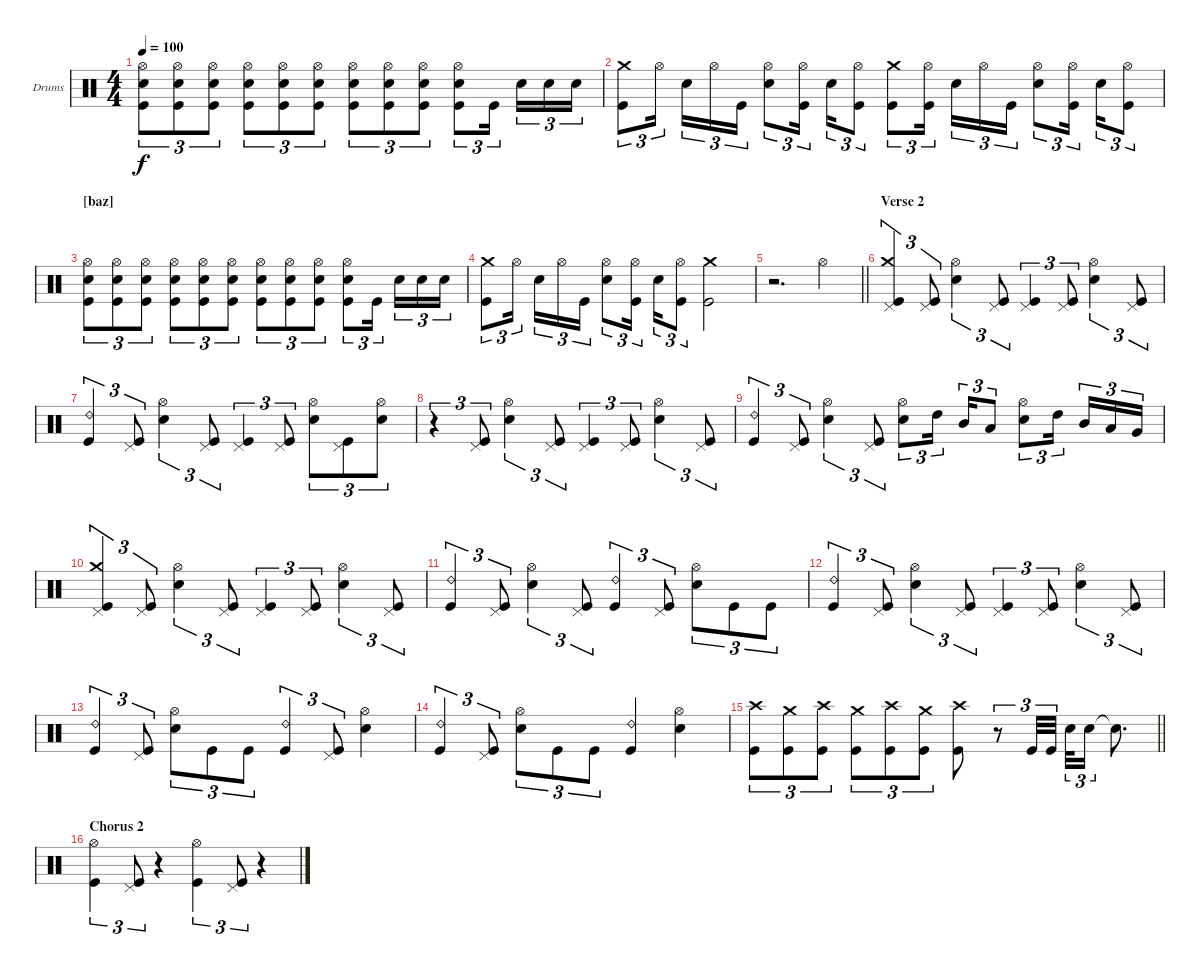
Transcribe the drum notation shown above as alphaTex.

\bracketExtendMode groupsimilarinstruments
\firstSystemTrackNameOrientation horizontal
\otherSystemsTrackNameOrientation horizontal
\track ("drums (Anton Zulganov)" "Drums") {instrument percussion}
\staff {score}
\articulation defaults
\ts (4 4)
\tempo 100
\clef neutral
\ks aminor
("Kick (hit)" "Snare (hit) 2" "Hi-Hat (open)").8{tu (3 2) dy f} ("Kick (hit)" "Snare (hit) 2" "Hi-Hat (open)").8{tu (3 2)} ("Kick (hit)" "Snare (hit) 2" "Hi-Hat (open)").8{tu (3 2)} ("Kick (hit)" "Snare (hit) 2" "Hi-Hat (open)").8{tu (3 2)} ("Kick (hit)" "Snare (hit) 2" "Hi-Hat (open)").8{tu (3 2)} ("Kick (hit)" "Snare (hit) 2" "Hi-Hat (open)").8{tu (3 2)} ("Kick (hit)" "Snare (hit) 2" "Hi-Hat (open)").8{tu (3 2)} ("Kick (hit)" "Snare (hit) 2" "Hi-Hat (open)").8{tu (3 2)} ("Kick (hit)" "Snare (hit) 2" "Hi-Hat (open)").8{tu (3 2)} ("Kick (hit)" "Snare (hit) 2" "Hi-Hat (open)").8{tu (3 2)} "Kick (hit)".16{tu (3 2)} "Snare (hit) 2".16{tu (3 2)} "Snare (hit) 2".16{tu (3 2)} "Snare (hit) 2".16{tu (3 2)} |
("Kick (hit)" "Crash medium (hit)").8{tu (3 2)} "Hi-Hat (open)".16{tu (3 2)} "Snare (hit) 2".16{tu (3 2)} "Hi-Hat (open)".16{tu (3 2)} "Kick (hit)".16{tu (3 2)} ("Snare (hit) 2" "Hi-Hat (open)").8{tu (3 2)} ("Kick (hit)" "Hi-Hat (open)").16{tu (3 2)} "Snare (hit) 2".16{tu (3 2)} ("Kick (hit)" "Hi-Hat (open)").8{tu (3 2)} ("Kick (hit)" "Crash medium (hit)").8{tu (3 2)} ("Kick (hit)" "Hi-Hat (open)").16{tu (3 2)} "Snare (hit) 2".16{tu (3 2)} "Hi-Hat (open)".16{tu (3 2)} "Kick (hit)".16{tu (3 2)} ("Snare (hit) 2" "Hi-Hat (open)").8{tu (3 2)} ("Kick (hit)" "Hi-Hat (open)").16{tu (3 2)} "Snare (hit) 2".16{tu (3 2)} ("Kick (hit)" "Hi-Hat (open)").8{tu (3 2)} |
\section ("" "[baz]")
("Kick (hit)" "Snare (hit) 2" "Hi-Hat (open)").8{tu (3 2)} ("Kick (hit)" "Snare (hit) 2" "Hi-Hat (open)").8{tu (3 2)} ("Kick (hit)" "Snare (hit) 2" "Hi-Hat (open)").8{tu (3 2)} ("Kick (hit)" "Snare (hit) 2" "Hi-Hat (open)").8{tu (3 2)} ("Kick (hit)" "Snare (hit) 2" "Hi-Hat (open)").8{tu (3 2)} ("Kick (hit)" "Snare (hit) 2" "Hi-Hat (open)").8{tu (3 2)} ("Kick (hit)" "Snare (hit) 2" "Hi-Hat (open)").8{tu (3 2)} ("Kick (hit)" "Snare (hit) 2" "Hi-Hat (open)").8{tu (3 2)} ("Kick (hit)" "Snare (hit) 2" "Hi-Hat (open)").8{tu (3 2)} ("Kick (hit)" "Snare (hit) 2" "Hi-Hat (open)").8{tu (3 2)} "Kick (hit)".16{tu (3 2)} "Snare (hit) 2".16{tu (3 2)} "Snare (hit) 2".16{tu (3 2)} "Snare (hit) 2".16{tu (3 2)} |
("Kick (hit)" "Crash medium (hit)").8{tu (3 2)} "Hi-Hat (open)".16{tu (3 2)} "Snare (hit) 2".16{tu (3 2)} "Hi-Hat (open)".16{tu (3 2)} "Kick (hit)".16{tu (3 2)} ("Snare (hit) 2" "Hi-Hat (open)").8{tu (3 2)} ("Kick (hit)" "Hi-Hat (open)").16{tu (3 2)} "Snare (hit) 2".16{tu (3 2)} ("Kick (hit)" "Hi-Hat (open)").8{tu (3 2)} ("Kick (hit)" "Crash medium (hit)").2 |
\barLineRight lightlight
r.2{d} "Hi-Hat (open)".4 |
\section ("" "Verse 2")
("Kick (hit)" "Pedal Hi-Hat (hit)" "Crash medium (hit)").4{tu (3 2)} ("Kick (hit)" "Pedal Hi-Hat (hit)").8{tu (3 2)} ("Snare (hit) 2" "Hi-Hat (open)").4{tu (3 2)} ("Kick (hit)" "Pedal Hi-Hat (hit)").8{tu (3 2)} ("Kick (hit)" "Pedal Hi-Hat (hit)").4{tu (3 2)} ("Kick (hit)" "Pedal Hi-Hat (hit)").8{tu (3 2)} ("Snare (hit) 2" "Hi-Hat (open)").4{tu (3 2)} ("Kick (hit)" "Pedal Hi-Hat (hit)").8{tu (3 2)} |
("Kick (hit)" "Ride (bell) 2").4{tu (3 2)} ("Kick (hit)" "Pedal Hi-Hat (hit)").8{tu (3 2)} ("Snare (hit) 2" "Hi-Hat (open)").4{tu (3 2)} ("Kick (hit)" "Pedal Hi-Hat (hit)").8{tu (3 2)} ("Kick (hit)" "Pedal Hi-Hat (hit)").4{tu (3 2)} ("Kick (hit)" "Pedal Hi-Hat (hit)").8{tu (3 2)} ("Snare (hit) 2" "Hi-Hat (open)").8{tu (3 2)} ("Kick (hit)" "Pedal Hi-Hat (hit)").8{tu (3 2)} ("Snare (hit) 2" "Hi-Hat (open)").8{tu (3 2)} |
r.4{tu (3 2)} ("Kick (hit)" "Pedal Hi-Hat (hit)").8{tu (3 2)} ("Snare (hit) 2" "Hi-Hat (open)").4{tu (3 2)} ("Kick (hit)" "Pedal Hi-Hat (hit)").8{tu (3 2)} ("Kick (hit)" "Pedal Hi-Hat (hit)").4{tu (3 2)} ("Kick (hit)" "Pedal Hi-Hat (hit)").8{tu (3 2)} ("Snare (hit) 2" "Hi-Hat (open)").4{tu (3 2)} ("Kick (hit)" "Pedal Hi-Hat (hit)").8{tu (3 2)} |
("Kick (hit)" "Ride (bell) 2").4{tu (3 2)} ("Kick (hit)" "Pedal Hi-Hat (hit)").8{tu (3 2)} ("Snare (hit) 2" "Hi-Hat (open)").4{tu (3 2)} ("Kick (hit)" "Pedal Hi-Hat (hit)").8{tu (3 2)} ("Snare (hit) 2" "Hi-Hat (open)").8{tu (3 2)} "High Tom (hit)".16{tu (3 2)} "Mid Tom (hit)".16{tu (3 2)} "Low Tom (hit)".8{tu (3 2)} ("Snare (hit) 2" "Hi-Hat (open)").8{tu (3 2)} "High Tom (hit)".16{tu (3 2)} "Mid Tom (hit)".16{tu (3 2)} "Low Tom (hit)".16{tu (3 2)} "Very Low Tom (hit)".16{tu (3 2)} |
("Kick (hit)" "Pedal Hi-Hat (hit)" "Crash medium (hit)").4{tu (3 2)} ("Kick (hit)" "Pedal Hi-Hat (hit)").8{tu (3 2)} ("Snare (hit) 2" "Hi-Hat (open)").4{tu (3 2)} ("Kick (hit)" "Pedal Hi-Hat (hit)").8{tu (3 2)} ("Kick (hit)" "Pedal Hi-Hat (hit)").4{tu (3 2)} ("Kick (hit)" "Pedal Hi-Hat (hit)").8{tu (3 2)} ("Snare (hit) 2" "Hi-Hat (open)").4{tu (3 2)} ("Kick (hit)" "Pedal Hi-Hat (hit)").8{tu (3 2)} |
("Kick (hit)" "Ride (bell) 2").4{tu (3 2)} ("Kick (hit)" "Pedal Hi-Hat (hit)").8{tu (3 2)} ("Snare (hit) 2" "Hi-Hat (open)").4{tu (3 2)} ("Kick (hit)" "Pedal Hi-Hat (hit)").8{tu (3 2)} ("Kick (hit)" "Ride (bell) 2").4{tu (3 2)} ("Kick (hit)" "Pedal Hi-Hat (hit)").8{tu (3 2)} ("Snare (hit) 2" "Hi-Hat (open)").8{tu (3 2)} "Kick (hit)".8{tu (3 2)} "Kick (hit)".8{tu (3 2)} |
("Kick (hit)" "Ride (bell) 2").4{tu (3 2)} ("Kick (hit)" "Pedal Hi-Hat (hit)").8{tu (3 2)} ("Snare (hit) 2" "Hi-Hat (open)").4{tu (3 2)} ("Kick (hit)" "Pedal Hi-Hat (hit)").8{tu (3 2)} ("Kick (hit)" "Pedal Hi-Hat (hit)").4{tu (3 2)} ("Kick (hit)" "Pedal Hi-Hat (hit)").8{tu (3 2)} ("Snare (hit) 2" "Hi-Hat (open)").4{tu (3 2)} ("Kick (hit)" "Pedal Hi-Hat (hit)").8{tu (3 2)} |
("Kick (hit)" "Ride (bell) 2").4{tu (3 2)} ("Kick (hit)" "Pedal Hi-Hat (hit)").8{tu (3 2)} ("Snare (hit) 2" "Hi-Hat (open)").8{tu (3 2)} "Kick (hit)".8{tu (3 2)} "Kick (hit)".8{tu (3 2)} ("Kick (hit)" "Ride (bell) 2").4{tu (3 2)} ("Kick (hit)" "Pedal Hi-Hat (hit)").8{tu (3 2)} ("Snare (hit) 2" "Hi-Hat (open)").4 |
("Kick (hit)" "Ride (bell) 2").4{tu (3 2)} ("Kick (hit)" "Pedal Hi-Hat (hit)").8{tu (3 2)} ("Snare (hit) 2" "Hi-Hat (open)").8{tu (3 2)} "Kick (hit)".8{tu (3 2)} "Kick (hit)".8{tu (3 2)} ("Kick (hit)" "Ride (bell) 2").4 ("Snare (hit) 2" "Hi-Hat (open)").4 |
\barLineRight lightlight
("Kick (hit)" "Crash high (hit)").8{tu (3 2)} ("Kick (hit)" "Crash medium (hit)").8{tu (3 2)} ("Kick (hit)" "Crash high (hit)").8{tu (3 2)} ("Kick (hit)" "Crash medium (hit)").8{tu (3 2)} ("Kick (hit)" "Crash high (hit)").8{tu (3 2)} ("Kick (hit)" "Crash medium (hit)").8{tu (3 2)} ("Kick (hit)" "Crash high (hit)").8 r.8{tu (3 2)} "Kick (hit)".32{tu (3 2)} "Kick (hit)".32{tu (3 2)} "Snare (hit) 2".32{tu (3 2)} "Snare (hit) 2".16{tu (3 2)} "Snare (hit) 2"{t}.8{d} |
\section ("" "Chorus 2")
("Kick (hit)" "Hi-Hat (open)").4{tu (3 2)} ("Kick (hit)" "Pedal Hi-Hat (hit)").8{tu (3 2)} r.4 ("Kick (hit)" "Hi-Hat (open)").4{tu (3 2)} ("Kick (hit)" "Pedal Hi-Hat (hit)").8{tu (3 2)} r.4
